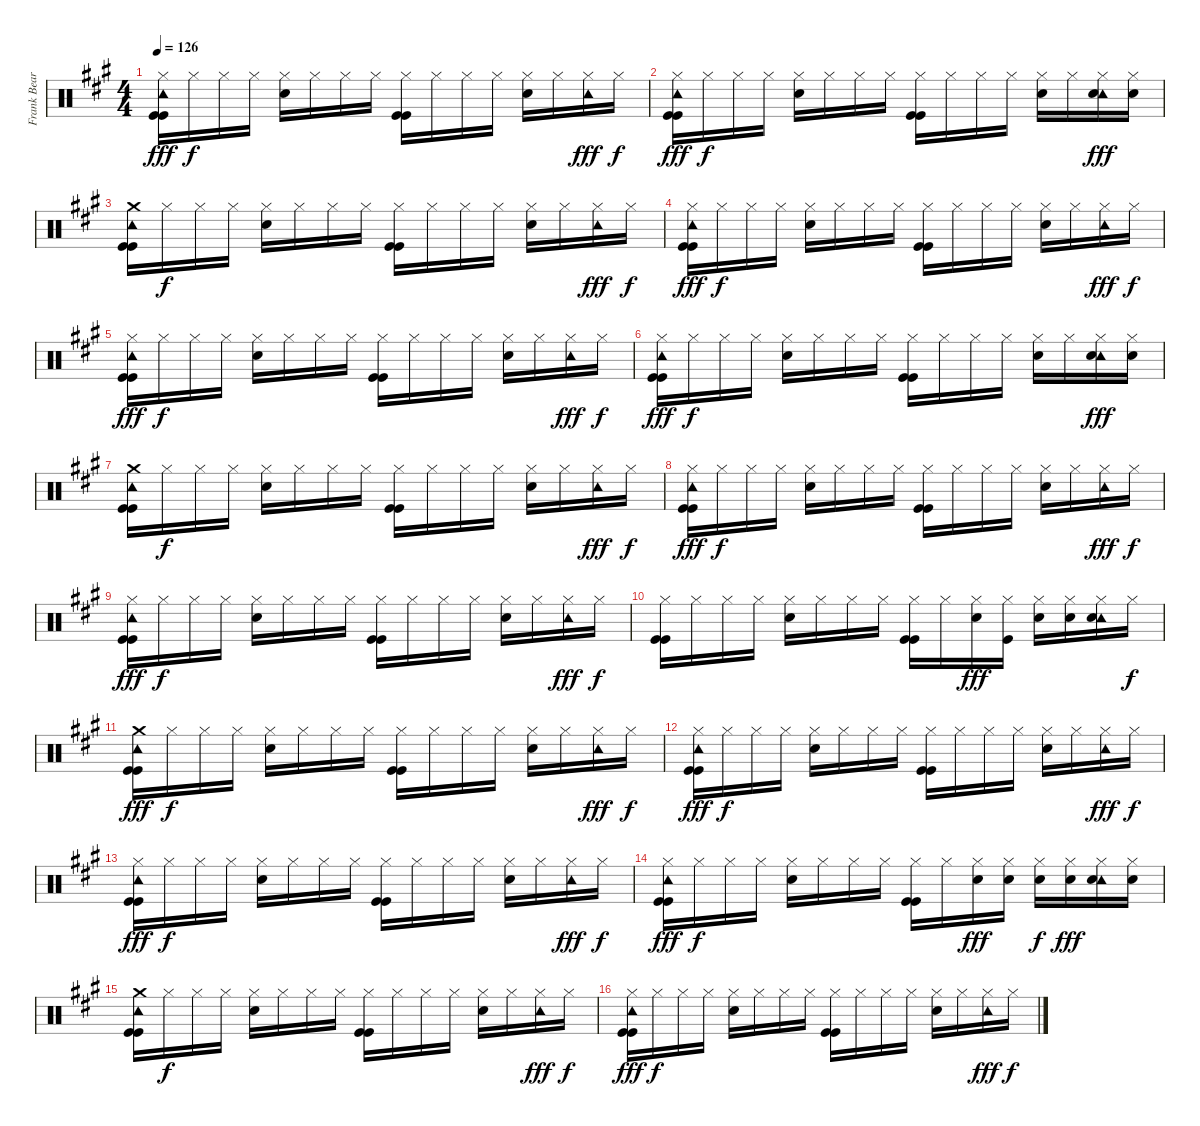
\track ("Frank Beard: Drums" "Frank Bear") {instrument percussion}
\staff {score}
\articulation defaults
\ts (4 4)
\tempo 126
\clef neutral
\ks a
("Hi-Hat (closed)" "Tambourine (hit)" "Kick (hit)" "Kick (hit)").16{dy fff} "Hi-Hat (closed)".16{dy f} "Hi-Hat (closed)".16 "Hi-Hat (closed)".16 ("Hi-Hat (closed)" "Electric Snare (hit)").16 "Hi-Hat (closed)".16 "Hi-Hat (closed)".16 "Hi-Hat (closed)".16 ("Hi-Hat (closed)" "Kick (hit)" "Kick (hit)").16 "Hi-Hat (closed)".16 "Hi-Hat (closed)".16 "Hi-Hat (closed)".16 ("Hi-Hat (closed)" "Electric Snare (hit)").16 "Hi-Hat (closed)".16 ("Hi-Hat (closed)" "Tambourine (hit)").16{dy fff} "Hi-Hat (closed)".16{dy f} |
("Hi-Hat (closed)" "Tambourine (hit)" "Kick (hit)" "Kick (hit)").16{dy fff} "Hi-Hat (closed)".16{dy f} "Hi-Hat (closed)".16 "Hi-Hat (closed)".16 ("Hi-Hat (closed)" "Electric Snare (hit)").16 "Hi-Hat (closed)".16 "Hi-Hat (closed)".16 "Hi-Hat (closed)".16 ("Hi-Hat (closed)" "Kick (hit)" "Kick (hit)").16 "Hi-Hat (closed)".16 "Hi-Hat (closed)".16 "Hi-Hat (closed)".16 ("Hi-Hat (closed)" "Electric Snare (hit)").16 "Hi-Hat (closed)".16 ("Hi-Hat (closed)" "Tambourine (hit)" "Electric Snare (hit)").16{dy fff} ("Hi-Hat (closed)" "Electric Snare (hit)").16 |
("Crash medium (hit)" "Tambourine (hit)" "Kick (hit)" "Kick (hit)").16 "Hi-Hat (closed)".16{dy f} "Hi-Hat (closed)".16 "Hi-Hat (closed)".16 ("Hi-Hat (closed)" "Electric Snare (hit)").16 "Hi-Hat (closed)".16 "Hi-Hat (closed)".16 "Hi-Hat (closed)".16 ("Hi-Hat (closed)" "Kick (hit)" "Kick (hit)").16 "Hi-Hat (closed)".16 "Hi-Hat (closed)".16 "Hi-Hat (closed)".16 ("Hi-Hat (closed)" "Electric Snare (hit)").16 "Hi-Hat (closed)".16 ("Hi-Hat (closed)" "Tambourine (hit)").16{dy fff} "Hi-Hat (closed)".16{dy f} |
("Hi-Hat (closed)" "Tambourine (hit)" "Kick (hit)" "Kick (hit)").16{dy fff} "Hi-Hat (closed)".16{dy f} "Hi-Hat (closed)".16 "Hi-Hat (closed)".16 ("Hi-Hat (closed)" "Electric Snare (hit)").16 "Hi-Hat (closed)".16 "Hi-Hat (closed)".16 "Hi-Hat (closed)".16 ("Hi-Hat (closed)" "Kick (hit)" "Kick (hit)").16 "Hi-Hat (closed)".16 "Hi-Hat (closed)".16 "Hi-Hat (closed)".16 ("Hi-Hat (closed)" "Electric Snare (hit)").16 "Hi-Hat (closed)".16 ("Hi-Hat (closed)" "Tambourine (hit)").16{dy fff} "Hi-Hat (closed)".16{dy f} |
("Hi-Hat (closed)" "Tambourine (hit)" "Kick (hit)" "Kick (hit)").16{dy fff} "Hi-Hat (closed)".16{dy f} "Hi-Hat (closed)".16 "Hi-Hat (closed)".16 ("Hi-Hat (closed)" "Electric Snare (hit)").16 "Hi-Hat (closed)".16 "Hi-Hat (closed)".16 "Hi-Hat (closed)".16 ("Hi-Hat (closed)" "Kick (hit)" "Kick (hit)").16 "Hi-Hat (closed)".16 "Hi-Hat (closed)".16 "Hi-Hat (closed)".16 ("Hi-Hat (closed)" "Electric Snare (hit)").16 "Hi-Hat (closed)".16 ("Hi-Hat (closed)" "Tambourine (hit)").16{dy fff} "Hi-Hat (closed)".16{dy f} |
("Hi-Hat (closed)" "Tambourine (hit)" "Kick (hit)" "Kick (hit)").16{dy fff} "Hi-Hat (closed)".16{dy f} "Hi-Hat (closed)".16 "Hi-Hat (closed)".16 ("Hi-Hat (closed)" "Electric Snare (hit)").16 "Hi-Hat (closed)".16 "Hi-Hat (closed)".16 "Hi-Hat (closed)".16 ("Hi-Hat (closed)" "Kick (hit)" "Kick (hit)").16 "Hi-Hat (closed)".16 "Hi-Hat (closed)".16 "Hi-Hat (closed)".16 ("Hi-Hat (closed)" "Electric Snare (hit)").16 "Hi-Hat (closed)".16 ("Hi-Hat (closed)" "Tambourine (hit)" "Electric Snare (hit)").16{dy fff} ("Hi-Hat (closed)" "Electric Snare (hit)").16 |
("Crash medium (hit)" "Tambourine (hit)" "Kick (hit)" "Kick (hit)").16 "Hi-Hat (closed)".16{dy f} "Hi-Hat (closed)".16 "Hi-Hat (closed)".16 ("Hi-Hat (closed)" "Electric Snare (hit)").16 "Hi-Hat (closed)".16 "Hi-Hat (closed)".16 "Hi-Hat (closed)".16 ("Hi-Hat (closed)" "Kick (hit)" "Kick (hit)").16 "Hi-Hat (closed)".16 "Hi-Hat (closed)".16 "Hi-Hat (closed)".16 ("Hi-Hat (closed)" "Electric Snare (hit)").16 "Hi-Hat (closed)".16 ("Hi-Hat (closed)" "Tambourine (hit)").16{dy fff} "Hi-Hat (closed)".16{dy f} |
("Hi-Hat (closed)" "Tambourine (hit)" "Kick (hit)" "Kick (hit)").16{dy fff} "Hi-Hat (closed)".16{dy f} "Hi-Hat (closed)".16 "Hi-Hat (closed)".16 ("Hi-Hat (closed)" "Electric Snare (hit)").16 "Hi-Hat (closed)".16 "Hi-Hat (closed)".16 "Hi-Hat (closed)".16 ("Hi-Hat (closed)" "Kick (hit)" "Kick (hit)").16 "Hi-Hat (closed)".16 "Hi-Hat (closed)".16 "Hi-Hat (closed)".16 ("Hi-Hat (closed)" "Electric Snare (hit)").16 "Hi-Hat (closed)".16 ("Hi-Hat (closed)" "Tambourine (hit)").16{dy fff} "Hi-Hat (closed)".16{dy f} |
("Hi-Hat (closed)" "Tambourine (hit)" "Kick (hit)" "Kick (hit)").16{dy fff} "Hi-Hat (closed)".16{dy f} "Hi-Hat (closed)".16 "Hi-Hat (closed)".16 ("Hi-Hat (closed)" "Electric Snare (hit)").16 "Hi-Hat (closed)".16 "Hi-Hat (closed)".16 "Hi-Hat (closed)".16 ("Hi-Hat (closed)" "Kick (hit)" "Kick (hit)").16 "Hi-Hat (closed)".16 "Hi-Hat (closed)".16 "Hi-Hat (closed)".16 ("Hi-Hat (closed)" "Electric Snare (hit)").16 "Hi-Hat (closed)".16 ("Hi-Hat (closed)" "Tambourine (hit)").16{dy fff} "Hi-Hat (closed)".16{dy f} |
("Hi-Hat (closed)" "Kick (hit)" "Kick (hit)").16 "Hi-Hat (closed)".16 "Hi-Hat (closed)".16 "Hi-Hat (closed)".16 ("Hi-Hat (closed)" "Electric Snare (hit)").16 "Hi-Hat (closed)".16 "Hi-Hat (closed)".16 "Hi-Hat (closed)".16 ("Hi-Hat (closed)" "Kick (hit)" "Kick (hit)").16 "Hi-Hat (closed)".16 ("Hi-Hat (closed)" "Electric Snare (hit)").16{dy fff} ("Hi-Hat (closed)" "Kick (hit)").16 ("Hi-Hat (closed)" "Electric Snare (hit)").16 ("Hi-Hat (closed)" "Electric Snare (hit)").16 ("Hi-Hat (closed)" "Tambourine (hit)" "Electric Snare (hit)").16 "Hi-Hat (closed)".16{dy f} |
("Crash medium (hit)" "Tambourine (hit)" "Kick (hit)" "Kick (hit)").16{dy fff} "Hi-Hat (closed)".16{dy f} "Hi-Hat (closed)".16 "Hi-Hat (closed)".16 ("Hi-Hat (closed)" "Electric Snare (hit)").16 "Hi-Hat (closed)".16 "Hi-Hat (closed)".16 "Hi-Hat (closed)".16 ("Hi-Hat (closed)" "Kick (hit)" "Kick (hit)").16 "Hi-Hat (closed)".16 "Hi-Hat (closed)".16 "Hi-Hat (closed)".16 ("Hi-Hat (closed)" "Electric Snare (hit)").16 "Hi-Hat (closed)".16 ("Hi-Hat (closed)" "Tambourine (hit)").16{dy fff} "Hi-Hat (closed)".16{dy f} |
("Hi-Hat (closed)" "Tambourine (hit)" "Kick (hit)" "Kick (hit)").16{dy fff} "Hi-Hat (closed)".16{dy f} "Hi-Hat (closed)".16 "Hi-Hat (closed)".16 ("Hi-Hat (closed)" "Electric Snare (hit)").16 "Hi-Hat (closed)".16 "Hi-Hat (closed)".16 "Hi-Hat (closed)".16 ("Hi-Hat (closed)" "Kick (hit)" "Kick (hit)").16 "Hi-Hat (closed)".16 "Hi-Hat (closed)".16 "Hi-Hat (closed)".16 ("Hi-Hat (closed)" "Electric Snare (hit)").16 "Hi-Hat (closed)".16 ("Hi-Hat (closed)" "Tambourine (hit)").16{dy fff} "Hi-Hat (closed)".16{dy f} |
("Hi-Hat (closed)" "Tambourine (hit)" "Kick (hit)" "Kick (hit)").16{dy fff} "Hi-Hat (closed)".16{dy f} "Hi-Hat (closed)".16 "Hi-Hat (closed)".16 ("Hi-Hat (closed)" "Electric Snare (hit)").16 "Hi-Hat (closed)".16 "Hi-Hat (closed)".16 "Hi-Hat (closed)".16 ("Hi-Hat (closed)" "Kick (hit)" "Kick (hit)").16 "Hi-Hat (closed)".16 "Hi-Hat (closed)".16 "Hi-Hat (closed)".16 ("Hi-Hat (closed)" "Electric Snare (hit)").16 "Hi-Hat (closed)".16 ("Hi-Hat (closed)" "Tambourine (hit)").16{dy fff} "Hi-Hat (closed)".16{dy f} |
("Hi-Hat (closed)" "Tambourine (hit)" "Kick (hit)" "Kick (hit)").16{dy fff} "Hi-Hat (closed)".16{dy f} "Hi-Hat (closed)".16 "Hi-Hat (closed)".16 ("Hi-Hat (closed)" "Electric Snare (hit)").16 "Hi-Hat (closed)".16 "Hi-Hat (closed)".16 "Hi-Hat (closed)".16 ("Hi-Hat (closed)" "Kick (hit)" "Kick (hit)").16 "Hi-Hat (closed)".16 ("Hi-Hat (closed)" "Electric Snare (hit)").16{dy fff} ("Hi-Hat (closed)" "Electric Snare (hit)").16 ("Hi-Hat (closed)" "Electric Snare (hit)").16{dy f} ("Hi-Hat (closed)" "Electric Snare (hit)").16{dy fff} ("Hi-Hat (closed)" "Tambourine (hit)" "Electric Snare (hit)").16 ("Hi-Hat (closed)" "Electric Snare (hit)").16 |
("Crash medium (hit)" "Tambourine (hit)" "Kick (hit)" "Kick (hit)").16 "Hi-Hat (closed)".16{dy f} "Hi-Hat (closed)".16 "Hi-Hat (closed)".16 ("Hi-Hat (closed)" "Electric Snare (hit)").16 "Hi-Hat (closed)".16 "Hi-Hat (closed)".16 "Hi-Hat (closed)".16 ("Hi-Hat (closed)" "Kick (hit)" "Kick (hit)").16 "Hi-Hat (closed)".16 "Hi-Hat (closed)".16 "Hi-Hat (closed)".16 ("Hi-Hat (closed)" "Electric Snare (hit)").16 "Hi-Hat (closed)".16 ("Hi-Hat (closed)" "Tambourine (hit)").16{dy fff} "Hi-Hat (closed)".16{dy f} |
("Hi-Hat (closed)" "Tambourine (hit)" "Kick (hit)" "Kick (hit)").16{dy fff} "Hi-Hat (closed)".16{dy f} "Hi-Hat (closed)".16 "Hi-Hat (closed)".16 ("Hi-Hat (closed)" "Electric Snare (hit)").16 "Hi-Hat (closed)".16 "Hi-Hat (closed)".16 "Hi-Hat (closed)".16 ("Hi-Hat (closed)" "Kick (hit)" "Kick (hit)").16 "Hi-Hat (closed)".16 "Hi-Hat (closed)".16 "Hi-Hat (closed)".16 ("Hi-Hat (closed)" "Electric Snare (hit)").16 "Hi-Hat (closed)".16 ("Hi-Hat (closed)" "Tambourine (hit)").16{dy fff} "Hi-Hat (closed)".16{dy f}
